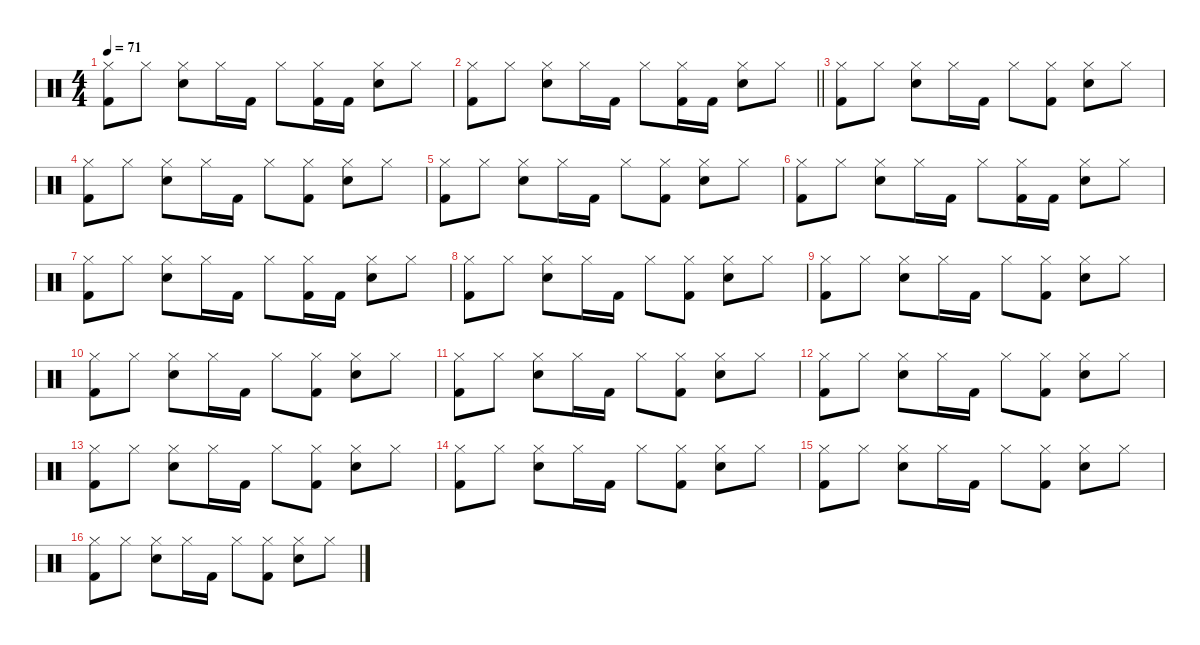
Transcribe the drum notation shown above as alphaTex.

\defaultSystemsLayout 4
\hideDynamics
\bracketExtendMode nobrackets
\singleTrackTrackNamePolicy hidden
\multiTrackTrackNamePolicy hidden
\firstSystemTrackNameMode fullname
\firstSystemTrackNameOrientation horizontal
\otherSystemsTrackNameOrientation horizontal
\track ("Drums" "drm.") {instrument percussion}
\staff {score}
\articulation defaults
\ts (4 4)
\beaming (8 2 2 2 2)
\tempo 71
\clef neutral
\ks c
("Hi-Hat (closed)" "Kick (hit) 2").8{dy f beam Down} "Hi-Hat (closed)".8{beam Down} ("Hi-Hat (closed)" "Snare (hit) 2").8{beam Down} "Hi-Hat (closed)".16{beam Down} "Kick (hit) 2".16{beam Down} "Hi-Hat (closed)".8{beam Down} ("Kick (hit) 2" "Hi-Hat (closed)").16{beam Down} "Kick (hit) 2".16{beam Down} ("Hi-Hat (closed)" "Snare (hit) 2").8{beam Down} "Hi-Hat (closed)".8{beam Down} |
\barLineRight lightlight
("Hi-Hat (closed)" "Kick (hit) 2").8{beam Down} "Hi-Hat (closed)".8{beam Down} ("Hi-Hat (closed)" "Snare (hit) 2").8{beam Down} "Hi-Hat (closed)".16{beam Down} "Kick (hit) 2".16{beam Down} "Hi-Hat (closed)".8{beam Down} ("Kick (hit) 2" "Hi-Hat (closed)").16{beam Down} "Kick (hit) 2".16{beam Down} ("Hi-Hat (closed)" "Snare (hit) 2").8{beam Down} "Hi-Hat (closed)".8{beam Down} |
("Hi-Hat (closed)" "Kick (hit) 2").8{beam Down} "Hi-Hat (closed)".8{beam Down} ("Hi-Hat (closed)" "Snare (hit) 2").8{beam Down} "Hi-Hat (closed)".16{beam Down} "Kick (hit) 2".16{beam Down} "Hi-Hat (closed)".8{beam Down} ("Kick (hit) 2" "Hi-Hat (closed)").8{beam Down} ("Hi-Hat (closed)" "Snare (hit) 2").8{beam Down} "Hi-Hat (closed)".8{beam Down} |
("Hi-Hat (closed)" "Kick (hit) 2").8{beam Down} "Hi-Hat (closed)".8{beam Down} ("Hi-Hat (closed)" "Snare (hit) 2").8{beam Down} "Hi-Hat (closed)".16{beam Down} "Kick (hit) 2".16{beam Down} "Hi-Hat (closed)".8{beam Down} ("Kick (hit) 2" "Hi-Hat (closed)").8{beam Down} ("Hi-Hat (closed)" "Snare (hit) 2").8{beam Down} "Hi-Hat (closed)".8{beam Down} |
("Hi-Hat (closed)" "Kick (hit) 2").8{beam Down} "Hi-Hat (closed)".8{beam Down} ("Hi-Hat (closed)" "Snare (hit) 2").8{beam Down} "Hi-Hat (closed)".16{beam Down} "Kick (hit) 2".16{beam Down} "Hi-Hat (closed)".8{beam Down} ("Kick (hit) 2" "Hi-Hat (closed)").8{beam Down} ("Hi-Hat (closed)" "Snare (hit) 2").8{beam Down} "Hi-Hat (closed)".8{beam Down} |
("Hi-Hat (closed)" "Kick (hit) 2").8{beam Down} "Hi-Hat (closed)".8{beam Down} ("Hi-Hat (closed)" "Snare (hit) 2").8{beam Down} "Hi-Hat (closed)".16{beam Down} "Kick (hit) 2".16{beam Down} "Hi-Hat (closed)".8{beam Down} ("Kick (hit) 2" "Hi-Hat (closed)").16{beam Down} "Kick (hit) 2".16{beam Down} ("Hi-Hat (closed)" "Snare (hit) 2").8{beam Down} "Hi-Hat (closed)".8{beam Down} |
("Hi-Hat (closed)" "Kick (hit) 2").8{beam Down} "Hi-Hat (closed)".8{beam Down} ("Hi-Hat (closed)" "Snare (hit) 2").8{beam Down} "Hi-Hat (closed)".16{beam Down} "Kick (hit) 2".16{beam Down} "Hi-Hat (closed)".8{beam Down} ("Kick (hit) 2" "Hi-Hat (closed)").16{beam Down} "Kick (hit) 2".16{beam Down} ("Hi-Hat (closed)" "Snare (hit) 2").8{beam Down} "Hi-Hat (closed)".8{beam Down} |
("Hi-Hat (closed)" "Kick (hit) 2").8{beam Down} "Hi-Hat (closed)".8{beam Down} ("Hi-Hat (closed)" "Snare (hit) 2").8{beam Down} "Hi-Hat (closed)".16{beam Down} "Kick (hit) 2".16{beam Down} "Hi-Hat (closed)".8{beam Down} ("Kick (hit) 2" "Hi-Hat (closed)").8{beam Down} ("Hi-Hat (closed)" "Snare (hit) 2").8{beam Down} "Hi-Hat (closed)".8{beam Down} |
("Hi-Hat (closed)" "Kick (hit) 2").8{beam Down} "Hi-Hat (closed)".8{beam Down} ("Hi-Hat (closed)" "Snare (hit) 2").8{beam Down} "Hi-Hat (closed)".16{beam Down} "Kick (hit) 2".16{beam Down} "Hi-Hat (closed)".8{beam Down} ("Kick (hit) 2" "Hi-Hat (closed)").8{beam Down} ("Hi-Hat (closed)" "Snare (hit) 2").8{beam Down} "Hi-Hat (closed)".8{beam Down} |
("Hi-Hat (closed)" "Kick (hit) 2").8{beam Down} "Hi-Hat (closed)".8{beam Down} ("Hi-Hat (closed)" "Snare (hit) 2").8{beam Down} "Hi-Hat (closed)".16{beam Down} "Kick (hit) 2".16{beam Down} "Hi-Hat (closed)".8{beam Down} ("Kick (hit) 2" "Hi-Hat (closed)").8{beam Down} ("Hi-Hat (closed)" "Snare (hit) 2").8{beam Down} "Hi-Hat (closed)".8{beam Down} |
("Hi-Hat (closed)" "Kick (hit) 2").8{beam Down} "Hi-Hat (closed)".8{beam Down} ("Hi-Hat (closed)" "Snare (hit) 2").8{beam Down} "Hi-Hat (closed)".16{beam Down} "Kick (hit) 2".16{beam Down} "Hi-Hat (closed)".8{beam Down} ("Kick (hit) 2" "Hi-Hat (closed)").8{beam Down} ("Hi-Hat (closed)" "Snare (hit) 2").8{beam Down} "Hi-Hat (closed)".8{beam Down} |
("Hi-Hat (closed)" "Kick (hit) 2").8{beam Down} "Hi-Hat (closed)".8{beam Down} ("Hi-Hat (closed)" "Snare (hit) 2").8{beam Down} "Hi-Hat (closed)".16{beam Down} "Kick (hit) 2".16{beam Down} "Hi-Hat (closed)".8{beam Down} ("Kick (hit) 2" "Hi-Hat (closed)").8{beam Down} ("Hi-Hat (closed)" "Snare (hit) 2").8{beam Down} "Hi-Hat (closed)".8{beam Down} |
("Hi-Hat (closed)" "Kick (hit) 2").8{beam Down} "Hi-Hat (closed)".8{beam Down} ("Hi-Hat (closed)" "Snare (hit) 2").8{beam Down} "Hi-Hat (closed)".16{beam Down} "Kick (hit) 2".16{beam Down} "Hi-Hat (closed)".8{beam Down} ("Kick (hit) 2" "Hi-Hat (closed)").8{beam Down} ("Hi-Hat (closed)" "Snare (hit) 2").8{beam Down} "Hi-Hat (closed)".8{beam Down} |
("Hi-Hat (closed)" "Kick (hit) 2").8{beam Down} "Hi-Hat (closed)".8{beam Down} ("Hi-Hat (closed)" "Snare (hit) 2").8{beam Down} "Hi-Hat (closed)".16{beam Down} "Kick (hit) 2".16{beam Down} "Hi-Hat (closed)".8{beam Down} ("Kick (hit) 2" "Hi-Hat (closed)").8{beam Down} ("Hi-Hat (closed)" "Snare (hit) 2").8{beam Down} "Hi-Hat (closed)".8{beam Down} |
("Hi-Hat (closed)" "Kick (hit) 2").8{beam Down} "Hi-Hat (closed)".8{beam Down} ("Hi-Hat (closed)" "Snare (hit) 2").8{beam Down} "Hi-Hat (closed)".16{beam Down} "Kick (hit) 2".16{beam Down} "Hi-Hat (closed)".8{beam Down} ("Kick (hit) 2" "Hi-Hat (closed)").8{beam Down} ("Hi-Hat (closed)" "Snare (hit) 2").8{beam Down} "Hi-Hat (closed)".8{beam Down} |
("Hi-Hat (closed)" "Kick (hit) 2").8{beam Down} "Hi-Hat (closed)".8{beam Down} ("Hi-Hat (closed)" "Snare (hit) 2").8{beam Down} "Hi-Hat (closed)".16{beam Down} "Kick (hit) 2".16{beam Down} "Hi-Hat (closed)".8{beam Down} ("Kick (hit) 2" "Hi-Hat (closed)").8{beam Down} ("Hi-Hat (closed)" "Snare (hit) 2").8{beam Down} "Hi-Hat (closed)".8{beam Down}
